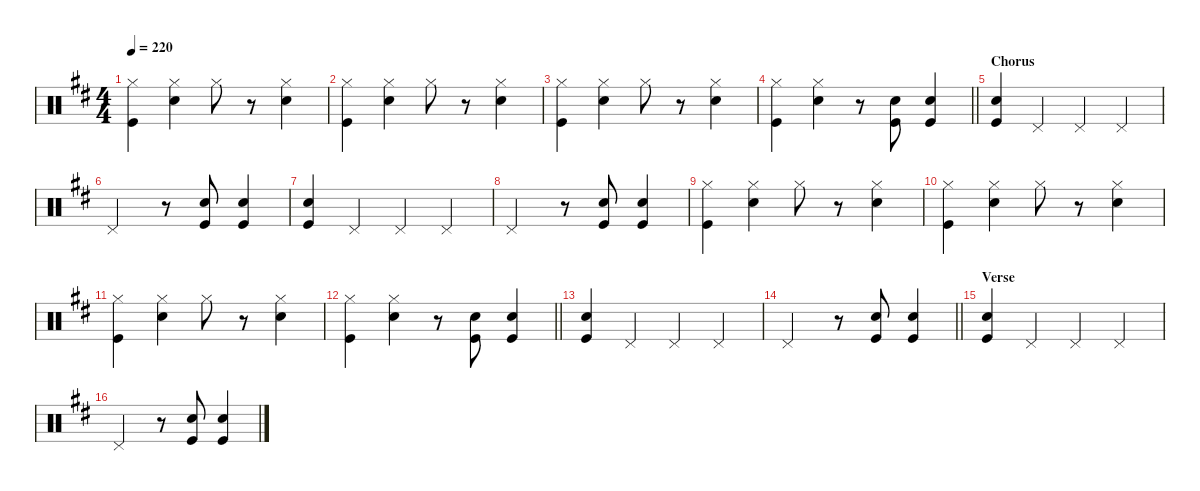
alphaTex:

\defaultSystemsLayout 4
\hideDynamics
\bracketExtendMode nobrackets
\singleTrackTrackNamePolicy hidden
\multiTrackTrackNamePolicy hidden
\otherSystemsTrackNameOrientation horizontal
\track ("Charlie Watts" "drm.") {defaultSystemsLayout 8 instrument percussion}
\staff {score}
\articulation defaults
\ts (4 4)
\tempo 220
\clef neutral
\ks bminor
("Hi-Hat (closed)"{acc forcenatural} "Kick (hit)"{acc forcenatural}).4{dy ff beam Down} ("Hi-Hat (closed)"{acc forcenatural} "Snare (hit) 2"{acc forcenatural}).4{beam Down} "Hi-Hat (closed)"{acc forcenatural}.8{beam Down} r.8{beam Down} ("Hi-Hat (closed)"{acc forcenatural} "Snare (hit) 2"{acc forcenatural}).4{beam Down} |
("Hi-Hat (closed)"{acc forcenatural} "Kick (hit)"{acc forcenatural}).4{beam Down} ("Hi-Hat (closed)"{acc forcenatural} "Snare (hit) 2"{acc forcenatural}).4{beam Down} "Hi-Hat (closed)"{acc forcenatural}.8{beam Down} r.8{beam Down} ("Hi-Hat (closed)"{acc forcenatural} "Snare (hit) 2"{acc forcenatural}).4{beam Down} |
("Hi-Hat (closed)"{acc forcenatural} "Kick (hit)"{acc forcenatural}).4{beam Down} ("Hi-Hat (closed)"{acc forcenatural} "Snare (hit) 2"{acc forcenatural}).4{beam Down} "Hi-Hat (closed)"{acc forcenatural}.8{beam Down} r.8{beam Down} ("Hi-Hat (closed)"{acc forcenatural} "Snare (hit) 2"{acc forcenatural}).4{beam Down} |
\barLineRight lightlight
("Hi-Hat (closed)"{acc forcenatural} "Kick (hit)"{acc forcenatural}).4{beam Down} ("Hi-Hat (closed)"{acc forcenatural} "Snare (hit) 2"{acc forcenatural}).4{beam Down} r.8{beam Down} ("Snare (hit) 2"{acc forcenatural} "Kick (hit)"{acc forcenatural}).8{beam Up} ("Snare (hit) 2"{acc forcenatural} "Kick (hit)"{acc forcenatural}).4{beam Up} |
\section ("" "Chorus")
("Snare (hit) 2"{acc forcenatural} "Kick (hit)"{acc forcenatural}).4{beam Up} "Pedal Hi-Hat (hit)"{acc forcenatural}.4{beam Up} "Pedal Hi-Hat (hit)"{acc forcenatural}.4{beam Up} "Pedal Hi-Hat (hit)"{acc forcenatural}.4{beam Up} |
"Pedal Hi-Hat (hit)"{acc forcenatural}.2{beam Up} r.8{beam Up} ("Snare (hit) 2"{acc forcenatural} "Kick (hit)"{acc forcenatural}).8{beam Up} ("Snare (hit) 2"{acc forcenatural} "Kick (hit)"{acc forcenatural}).4{beam Up} |
("Snare (hit) 2"{acc forcenatural} "Kick (hit)"{acc forcenatural}).4{beam Up} "Pedal Hi-Hat (hit)"{acc forcenatural}.4{beam Up} "Pedal Hi-Hat (hit)"{acc forcenatural}.4{beam Up} "Pedal Hi-Hat (hit)"{acc forcenatural}.4{beam Up} |
"Pedal Hi-Hat (hit)"{acc forcenatural}.2{beam Up} r.8{beam Up} ("Snare (hit) 2"{acc forcenatural} "Kick (hit)"{acc forcenatural}).8{beam Up} ("Snare (hit) 2"{acc forcenatural} "Kick (hit)"{acc forcenatural}).4{beam Up} |
("Hi-Hat (closed)"{acc forcenatural} "Kick (hit)"{acc forcenatural}).4{beam Down} ("Hi-Hat (closed)"{acc forcenatural} "Snare (hit) 2"{acc forcenatural}).4{beam Down} "Hi-Hat (closed)"{acc forcenatural}.8{beam Down} r.8{beam Down} ("Hi-Hat (closed)"{acc forcenatural} "Snare (hit) 2"{acc forcenatural}).4{beam Down} |
("Hi-Hat (closed)"{acc forcenatural} "Kick (hit)"{acc forcenatural}).4{beam Down} ("Hi-Hat (closed)"{acc forcenatural} "Snare (hit) 2"{acc forcenatural}).4{beam Down} "Hi-Hat (closed)"{acc forcenatural}.8{beam Down} r.8{beam Down} ("Hi-Hat (closed)"{acc forcenatural} "Snare (hit) 2"{acc forcenatural}).4{beam Down} |
("Hi-Hat (closed)"{acc forcenatural} "Kick (hit)"{acc forcenatural}).4{beam Down} ("Hi-Hat (closed)"{acc forcenatural} "Snare (hit) 2"{acc forcenatural}).4{beam Down} "Hi-Hat (closed)"{acc forcenatural}.8{beam Down} r.8{beam Down} ("Hi-Hat (closed)"{acc forcenatural} "Snare (hit) 2"{acc forcenatural}).4{beam Down} |
\barLineRight lightlight
("Hi-Hat (closed)"{acc forcenatural} "Kick (hit)"{acc forcenatural}).4{beam Down} ("Hi-Hat (closed)"{acc forcenatural} "Snare (hit) 2"{acc forcenatural}).4{beam Down} r.8{beam Down} ("Snare (hit) 2"{acc forcenatural} "Kick (hit)"{acc forcenatural}).8{beam Up} ("Snare (hit) 2"{acc forcenatural} "Kick (hit)"{acc forcenatural}).4{beam Up} |
("Snare (hit) 2"{acc forcenatural} "Kick (hit)"{acc forcenatural}).4{beam Up} "Pedal Hi-Hat (hit)"{acc forcenatural}.4{beam Up} "Pedal Hi-Hat (hit)"{acc forcenatural}.4{beam Up} "Pedal Hi-Hat (hit)"{acc forcenatural}.4{beam Up} |
\barLineRight lightlight "Pedal Hi-Hat (hit)"{acc forcenatural}.2{beam Up}
r.8{beam Up} ("Snare (hit) 2"{acc forcenatural} "Kick (hit)"{acc forcenatural}).8{beam Up} ("Snare (hit) 2"{acc forcenatural} "Kick (hit)"{acc forcenatural}).4{beam Up} |
\section ("" "Verse")
("Snare (hit) 2"{acc forcenatural} "Kick (hit)"{acc forcenatural}).4{beam Up} "Pedal Hi-Hat (hit)"{acc forcenatural}.4{beam Up} "Pedal Hi-Hat (hit)"{acc forcenatural}.4{beam Up} "Pedal Hi-Hat (hit)"{acc forcenatural}.4{beam Up} |
"Pedal Hi-Hat (hit)"{acc forcenatural}.2{beam Up} r.8{beam Up} ("Snare (hit) 2"{acc forcenatural} "Kick (hit)"{acc forcenatural}).8{beam Up} ("Snare (hit) 2"{acc forcenatural} "Kick (hit)"{acc forcenatural}).4{beam Up}
